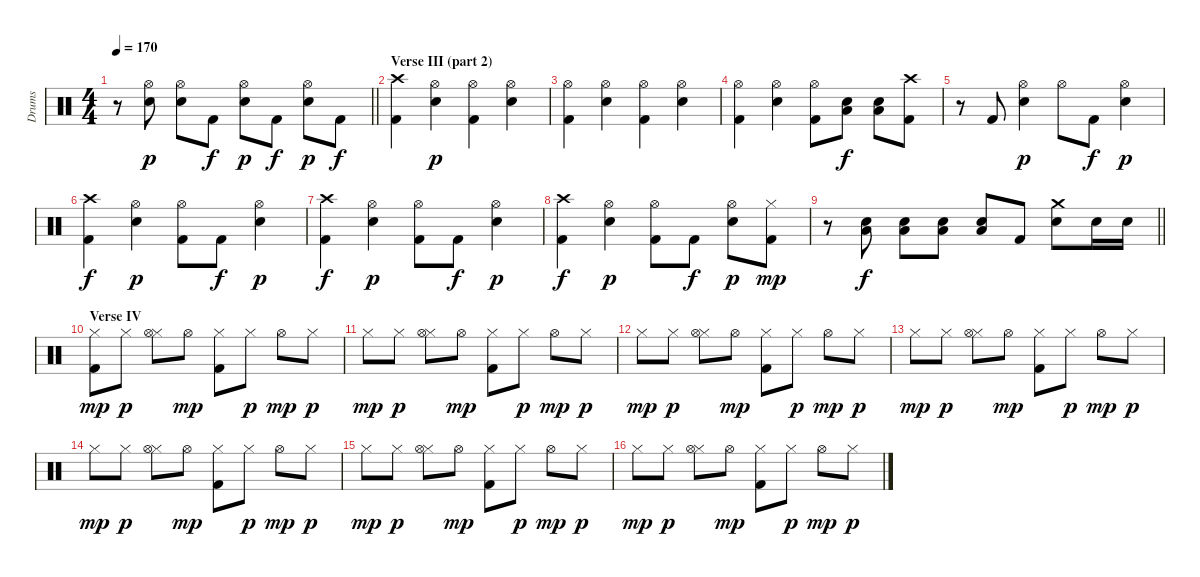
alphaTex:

\track ("Drums" "Drums") {instrument percussion}
\staff {score}
\articulation defaults
\ts (4 4)
\tempo 170
\clef neutral
\barLineRight lightlight
\ks c
r.8{dy mp} ("Hi-Hat (open)" "Electric Snare (hit)").8{dy p} ("Hi-Hat (open)" "Electric Snare (hit)").8 "Kick (hit) 2".8{dy f} ("Hi-Hat (open)" "Electric Snare (hit)").8{dy p} "Kick (hit) 2".8{dy f} ("Hi-Hat (open)" "Electric Snare (hit)").8{dy p} "Kick (hit) 2".8{dy f} |
\section ("" "Verse III (part 2)")
("Crash high (hit)" "Kick (hit) 2").4 ("Hi-Hat (open)" "Electric Snare (hit)").4{dy p} ("Hi-Hat (open)" "Kick (hit) 2").4 ("Hi-Hat (open)" "Electric Snare (hit)").4 |
("Hi-Hat (open)" "Kick (hit) 2").4 ("Hi-Hat (open)" "Electric Snare (hit)").4 ("Hi-Hat (open)" "Kick (hit) 2").4 ("Hi-Hat (open)" "Electric Snare (hit)").4 |
("Hi-Hat (open)" "Kick (hit) 2").4 ("Hi-Hat (open)" "Electric Snare (hit)").4 ("Hi-Hat (open)" "Kick (hit) 2").8 ("Electric Snare (hit)" "Low Tom (hit)").8{dy f} ("Electric Snare (hit)" "Low Tom (hit)").8 ("Crash high (hit)" "Kick (hit) 2").8 |
r.8 "Kick (hit) 2".8 ("Hi-Hat (open)" "Electric Snare (hit)").4{dy p} "Hi-Hat (open)".8 "Kick (hit) 2".8{dy f} ("Hi-Hat (open)" "Electric Snare (hit)").4{dy p} |
("Crash high (hit)" "Kick (hit) 2").4{dy f} ("Hi-Hat (open)" "Electric Snare (hit)").4{dy p} ("Hi-Hat (open)" "Kick (hit) 2").8 "Kick (hit) 2".8{dy f} ("Hi-Hat (open)" "Electric Snare (hit)").4{dy p} |
("Crash high (hit)" "Kick (hit) 2").4{dy f} ("Hi-Hat (open)" "Electric Snare (hit)").4{dy p} ("Hi-Hat (open)" "Kick (hit) 2").8 "Kick (hit) 2".8{dy f} ("Hi-Hat (open)" "Electric Snare (hit)").4{dy p} |
("Crash high (hit)" "Kick (hit) 2").4{dy f} ("Hi-Hat (open)" "Electric Snare (hit)").4{dy p} ("Hi-Hat (open)" "Kick (hit) 2").8 "Kick (hit) 2".8{dy f} ("Hi-Hat (open)" "Electric Snare (hit)").8{dy p} ("Hi-Hat (closed)" "Kick (hit) 2").8{dy mp} |
\barLineRight lightlight
r.8 ("Electric Snare (hit)" "Low Tom (hit)").8{dy f} ("Electric Snare (hit)" "Low Tom (hit)").8 ("Electric Snare (hit)" "Low Tom (hit)").8 ("Electric Snare (hit)" "Low Tom (hit)").8 "Kick (hit) 2".8 ("Crash medium (hit)" "Electric Snare (hit)").8 "Electric Snare (hit)".16 "Electric Snare (hit)".16 |
\section ("" "Verse IV")
("Hi-Hat (closed)" "Kick (hit) 2").8{dy mp} "Hi-Hat (closed)".8{dy p} ("Hi-Hat (closed)" "Hi-Hat (open)").8 "Hi-Hat (open)".8{dy mp} ("Hi-Hat (closed)" "Kick (hit) 2").8 "Hi-Hat (closed)".8{dy p} "Hi-Hat (open)".8{dy mp} "Hi-Hat (closed)".8{dy p} |
"Hi-Hat (closed)".8{dy mp} "Hi-Hat (closed)".8{dy p} ("Hi-Hat (closed)" "Hi-Hat (open)").8 "Hi-Hat (open)".8{dy mp} ("Hi-Hat (closed)" "Kick (hit) 2").8 "Hi-Hat (closed)".8{dy p} "Hi-Hat (open)".8{dy mp} "Hi-Hat (closed)".8{dy p} |
"Hi-Hat (closed)".8{dy mp} "Hi-Hat (closed)".8{dy p} ("Hi-Hat (closed)" "Hi-Hat (open)").8 "Hi-Hat (open)".8{dy mp} ("Hi-Hat (closed)" "Kick (hit) 2").8 "Hi-Hat (closed)".8{dy p} "Hi-Hat (open)".8{dy mp} "Hi-Hat (closed)".8{dy p} |
"Hi-Hat (closed)".8{dy mp} "Hi-Hat (closed)".8{dy p} ("Hi-Hat (closed)" "Hi-Hat (open)").8 "Hi-Hat (open)".8{dy mp} ("Hi-Hat (closed)" "Kick (hit) 2").8 "Hi-Hat (closed)".8{dy p} "Hi-Hat (open)".8{dy mp} "Hi-Hat (closed)".8{dy p} |
"Hi-Hat (closed)".8{dy mp} "Hi-Hat (closed)".8{dy p} ("Hi-Hat (closed)" "Hi-Hat (open)").8 "Hi-Hat (open)".8{dy mp} ("Hi-Hat (closed)" "Kick (hit) 2").8 "Hi-Hat (closed)".8{dy p} "Hi-Hat (open)".8{dy mp} "Hi-Hat (closed)".8{dy p} |
"Hi-Hat (closed)".8{dy mp} "Hi-Hat (closed)".8{dy p} ("Hi-Hat (closed)" "Hi-Hat (open)").8 "Hi-Hat (open)".8{dy mp} ("Hi-Hat (closed)" "Kick (hit) 2").8 "Hi-Hat (closed)".8{dy p} "Hi-Hat (open)".8{dy mp} "Hi-Hat (closed)".8{dy p} |
"Hi-Hat (closed)".8{dy mp} "Hi-Hat (closed)".8{dy p} ("Hi-Hat (closed)" "Hi-Hat (open)").8 "Hi-Hat (open)".8{dy mp} ("Hi-Hat (closed)" "Kick (hit) 2").8 "Hi-Hat (closed)".8{dy p} "Hi-Hat (open)".8{dy mp} "Hi-Hat (closed)".8{dy p}
